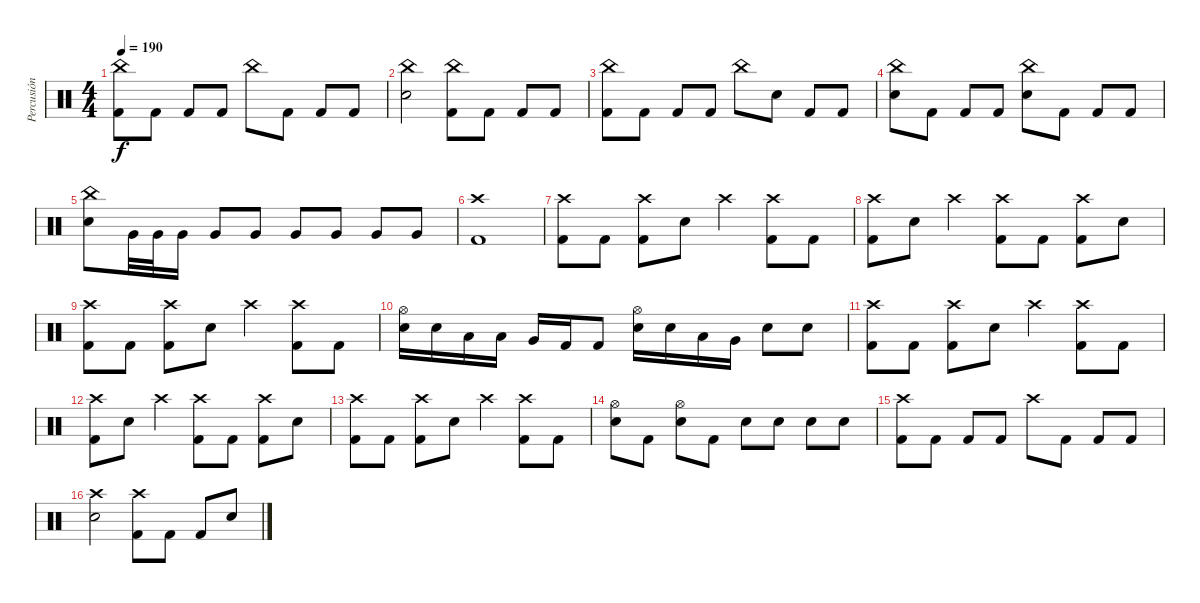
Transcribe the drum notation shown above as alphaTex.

\track ("Percusión" "Percusión") {instrument percussion}
\staff {score}
\articulation defaults
\ts (4 4)
\tempo 190
\clef neutral
\ks c
("China (hit)" "Kick (hit) 2").8{dy f} "Kick (hit) 2".8 "Kick (hit) 2".8 "Kick (hit) 2".8 "China (hit)".8 "Kick (hit) 2".8 "Kick (hit) 2".8 "Kick (hit) 2".8 |
("China (hit)" "Electric Snare (hit)").2 ("China (hit)" "Kick (hit) 2").8 "Kick (hit) 2".8 "Kick (hit) 2".8 "Kick (hit) 2".8 |
("China (hit)" "Kick (hit) 2").8 "Kick (hit) 2".8 "Kick (hit) 2".8 "Kick (hit) 2".8 "China (hit)".8 "Electric Snare (hit)".8 "Kick (hit) 2".8 "Kick (hit) 2".8 |
("China (hit)" "Electric Snare (hit)").8 "Kick (hit) 2".8 "Kick (hit) 2".8 "Kick (hit) 2".8 ("China (hit)" "Electric Snare (hit)").8 "Kick (hit) 2".8 "Kick (hit) 2".8 "Kick (hit) 2".8 |
("China (hit)" "Electric Snare (hit)").8 "Very Low Tom (hit)".32 "Very Low Tom (hit)".32 "Very Low Tom (hit)".16 "Very Low Tom (hit)".8 "Very Low Tom (hit)".8 "Very Low Tom (hit)".8 "Very Low Tom (hit)".8 "Very Low Tom (hit)".8 "Very Low Tom (hit)".8 |
("Crash high (hit)" "Kick (hit) 2").1 |
("Crash high (hit)" "Kick (hit) 2").8 "Kick (hit) 2".8 ("Crash high (hit)" "Kick (hit) 2").8 "Electric Snare (hit)".8 "Crash high (hit)".4 ("Crash high (hit)" "Kick (hit) 2").8 "Kick (hit) 2".8 |
("Crash high (hit)" "Kick (hit) 2").8 "Electric Snare (hit)".8 "Crash high (hit)".4 ("Crash high (hit)" "Kick (hit) 2").8 "Kick (hit) 2".8 ("Crash high (hit)" "Kick (hit) 2").8 "Electric Snare (hit)".8 |
("Crash high (hit)" "Kick (hit) 2").8 "Kick (hit) 2".8 ("Crash high (hit)" "Kick (hit) 2").8 "Electric Snare (hit)".8 "Crash high (hit)".4 ("Crash high (hit)" "Kick (hit) 2").8 "Kick (hit) 2".8 |
("Hi-Hat (open)" "Electric Snare (hit)").16 "Electric Snare (hit)".16 "Low Tom (hit)".16 "Low Tom (hit)".16 "Very Low Tom (hit)".16 "Kick (hit) 2".16 "Kick (hit) 2".8 ("Hi-Hat (open)" "Electric Snare (hit)").16 "Electric Snare (hit)".16 "Low Tom (hit)".16 "Very Low Tom (hit)".16 "Electric Snare (hit)".8 "Electric Snare (hit)".8 |
("Crash high (hit)" "Kick (hit) 2").8 "Kick (hit) 2".8 ("Crash high (hit)" "Kick (hit) 2").8 "Electric Snare (hit)".8 "Crash high (hit)".4 ("Crash high (hit)" "Kick (hit) 2").8 "Kick (hit) 2".8 |
("Crash high (hit)" "Kick (hit) 2").8 "Electric Snare (hit)".8 "Crash high (hit)".4 ("Crash high (hit)" "Kick (hit) 2").8 "Kick (hit) 2".8 ("Crash high (hit)" "Kick (hit) 2").8 "Electric Snare (hit)".8 |
("Crash high (hit)" "Kick (hit) 2").8 "Kick (hit) 2".8 ("Crash high (hit)" "Kick (hit) 2").8 "Electric Snare (hit)".8 "Crash high (hit)".4 ("Crash high (hit)" "Kick (hit) 2").8 "Kick (hit) 2".8 |
("Hi-Hat (open)" "Electric Snare (hit)").8 "Kick (hit) 2".8 ("Hi-Hat (open)" "Electric Snare (hit)").8 "Kick (hit) 2".8 "Electric Snare (hit)".8 "Electric Snare (hit)".8 "Electric Snare (hit)".8 "Electric Snare (hit)".8 |
("Crash high (hit)" "Kick (hit) 2").8 "Kick (hit) 2".8 "Kick (hit) 2".8 "Kick (hit) 2".8 "Crash high (hit)".8 "Kick (hit) 2".8 "Kick (hit) 2".8 "Kick (hit) 2".8 |
("Crash high (hit)" "Electric Snare (hit)").2 ("Crash high (hit)" "Kick (hit) 2").8 "Kick (hit) 2".8 "Kick (hit) 2".8 "Electric Snare (hit)".8
